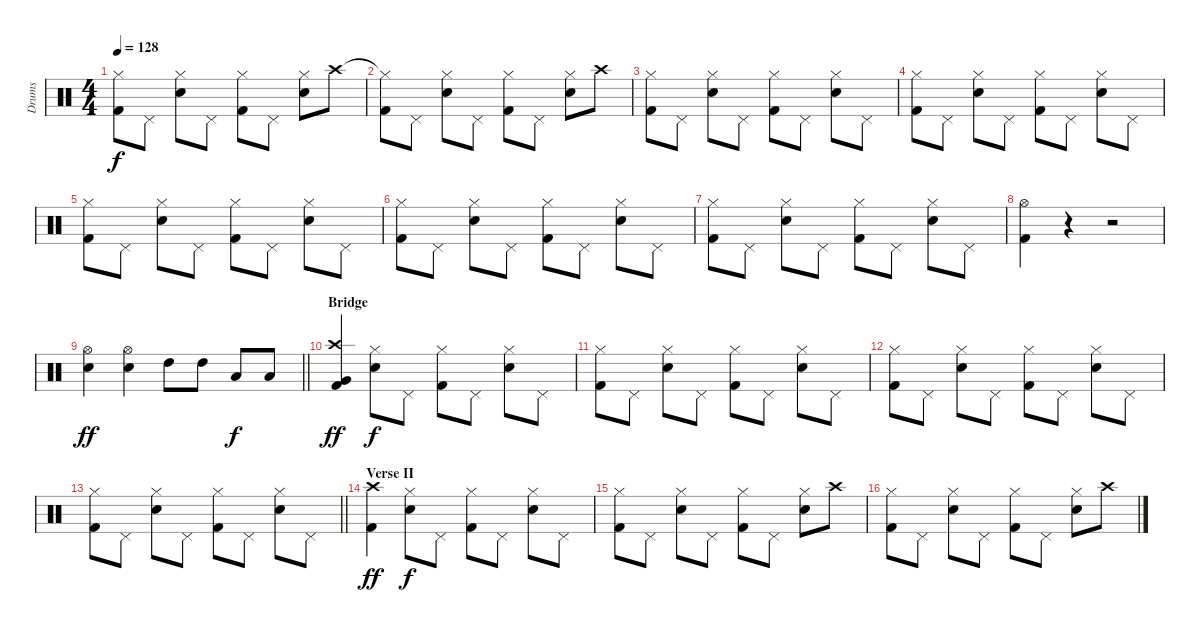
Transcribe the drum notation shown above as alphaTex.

\track ("Drums" "Drums") {instrument percussion}
\staff {score}
\articulation defaults
\ts (4 4)
\tempo 128
\clef neutral
\ks c
("Hi-Hat (closed)"{t} "Kick (hit) 2").8{dy f} "Pedal Hi-Hat (hit)".8 ("Hi-Hat (closed)" "Electric Snare (hit)").8 "Pedal Hi-Hat (hit)".8 ("Hi-Hat (closed)" "Kick (hit) 2").8 "Pedal Hi-Hat (hit)".8 ("Hi-Hat (closed)" "Electric Snare (hit)").8 "Crash high (hit)".8 |
("Hi-Hat (closed)"{t} "Kick (hit) 2").8 "Pedal Hi-Hat (hit)".8 ("Hi-Hat (closed)" "Electric Snare (hit)").8 "Pedal Hi-Hat (hit)".8 ("Hi-Hat (closed)" "Kick (hit) 2").8 "Pedal Hi-Hat (hit)".8 ("Hi-Hat (closed)" "Electric Snare (hit)").8 "Crash high (hit)".8 |
("Hi-Hat (closed)" "Kick (hit) 2").8 "Pedal Hi-Hat (hit)".8 ("Hi-Hat (closed)" "Electric Snare (hit)").8 "Pedal Hi-Hat (hit)".8 ("Hi-Hat (closed)" "Kick (hit) 2").8 "Pedal Hi-Hat (hit)".8 ("Hi-Hat (closed)" "Electric Snare (hit)").8 "Pedal Hi-Hat (hit)".8 |
("Hi-Hat (closed)" "Kick (hit) 2").8 "Pedal Hi-Hat (hit)".8 ("Hi-Hat (closed)" "Electric Snare (hit)").8 "Pedal Hi-Hat (hit)".8 ("Hi-Hat (closed)" "Kick (hit) 2").8 "Pedal Hi-Hat (hit)".8 ("Hi-Hat (closed)" "Electric Snare (hit)").8 "Pedal Hi-Hat (hit)".8 |
("Hi-Hat (closed)" "Kick (hit) 2").8 "Pedal Hi-Hat (hit)".8 ("Hi-Hat (closed)" "Electric Snare (hit)").8 "Pedal Hi-Hat (hit)".8 ("Hi-Hat (closed)" "Kick (hit) 2").8 "Pedal Hi-Hat (hit)".8 ("Hi-Hat (closed)" "Electric Snare (hit)").8 "Pedal Hi-Hat (hit)".8 |
("Hi-Hat (closed)" "Kick (hit) 2").8 "Pedal Hi-Hat (hit)".8 ("Hi-Hat (closed)" "Electric Snare (hit)").8 "Pedal Hi-Hat (hit)".8 ("Hi-Hat (closed)" "Kick (hit) 2").8 "Pedal Hi-Hat (hit)".8 ("Hi-Hat (closed)" "Electric Snare (hit)").8 "Pedal Hi-Hat (hit)".8 |
("Hi-Hat (closed)" "Kick (hit) 2").8 "Pedal Hi-Hat (hit)".8 ("Hi-Hat (closed)" "Electric Snare (hit)").8 "Pedal Hi-Hat (hit)".8 ("Hi-Hat (closed)" "Kick (hit) 2").8 "Pedal Hi-Hat (hit)".8 ("Hi-Hat (closed)" "Electric Snare (hit)").8 "Pedal Hi-Hat (hit)".8 |
("Hi-Hat (open)" "Kick (hit) 2").4 r.4 r.2 |
\barLineRight lightlight
("Hi-Hat (open)" "Snare (hit) 2").4{dy ff} ("Hi-Hat (open)" "Snare (hit) 2").4 "High Tom (hit)".8 "High Tom (hit)".8 "Low Tom (hit)".8{dy f} "Low Tom (hit)".8 |
\section ("" "Bridge")
("Crash high (hit)" "Very Low Tom (hit)" "Kick (hit) 2").4{dy ff} ("Hi-Hat (closed)" "Electric Snare (hit)").8{dy f} "Pedal Hi-Hat (hit)".8 ("Hi-Hat (closed)" "Kick (hit) 2").8 "Pedal Hi-Hat (hit)".8 ("Hi-Hat (closed)" "Electric Snare (hit)").8 "Pedal Hi-Hat (hit)".8 |
("Hi-Hat (closed)" "Kick (hit) 2").8 "Pedal Hi-Hat (hit)".8 ("Hi-Hat (closed)" "Electric Snare (hit)").8 "Pedal Hi-Hat (hit)".8 ("Hi-Hat (closed)" "Kick (hit) 2").8 "Pedal Hi-Hat (hit)".8 ("Hi-Hat (closed)" "Electric Snare (hit)").8 "Pedal Hi-Hat (hit)".8 |
("Hi-Hat (closed)" "Kick (hit) 2").8 "Pedal Hi-Hat (hit)".8 ("Hi-Hat (closed)" "Electric Snare (hit)").8 "Pedal Hi-Hat (hit)".8 ("Hi-Hat (closed)" "Kick (hit) 2").8 "Pedal Hi-Hat (hit)".8 ("Hi-Hat (closed)" "Electric Snare (hit)").8 "Pedal Hi-Hat (hit)".8 |
\barLineRight lightlight
("Hi-Hat (closed)" "Kick (hit) 2").8 "Pedal Hi-Hat (hit)".8 ("Hi-Hat (closed)" "Electric Snare (hit)").8 "Pedal Hi-Hat (hit)".8 ("Hi-Hat (closed)" "Kick (hit) 2").8 "Pedal Hi-Hat (hit)".8 ("Hi-Hat (closed)" "Electric Snare (hit)").8 "Pedal Hi-Hat (hit)".8 |
\section ("" "Verse II")
("Crash high (hit)" "Kick (hit) 2").4{dy ff} ("Hi-Hat (closed)" "Electric Snare (hit)").8{dy f} "Pedal Hi-Hat (hit)".8 ("Hi-Hat (closed)" "Kick (hit) 2").8 "Pedal Hi-Hat (hit)".8 ("Hi-Hat (closed)" "Electric Snare (hit)").8 "Pedal Hi-Hat (hit)".8 |
("Hi-Hat (closed)" "Kick (hit) 2").8 "Pedal Hi-Hat (hit)".8 ("Hi-Hat (closed)" "Electric Snare (hit)").8 "Pedal Hi-Hat (hit)".8 ("Hi-Hat (closed)" "Kick (hit) 2").8 "Pedal Hi-Hat (hit)".8 ("Hi-Hat (closed)" "Electric Snare (hit)").8 "Crash high (hit)".8 |
("Hi-Hat (closed)" "Kick (hit) 2").8 "Pedal Hi-Hat (hit)".8 ("Hi-Hat (closed)" "Electric Snare (hit)").8 "Pedal Hi-Hat (hit)".8 ("Hi-Hat (closed)" "Kick (hit) 2").8 "Pedal Hi-Hat (hit)".8 ("Hi-Hat (closed)" "Electric Snare (hit)").8 "Crash high (hit)".8
